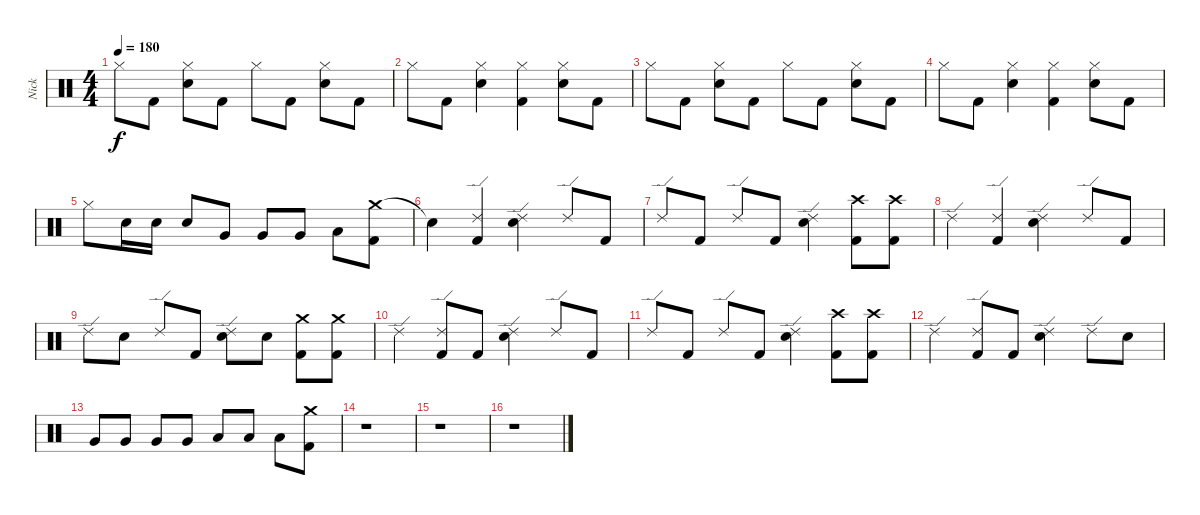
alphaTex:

\track ("Nick" "Nick") {instrument percussion}
\staff {score}
\articulation defaults
\ts (4 4)
\tempo 180
\clef neutral
\ks c "Hi-Hat (closed)".8{dy f} "Kick (hit) 2".8
("Hi-Hat (closed)" "Electric Snare (hit)").8 "Kick (hit) 2".8 "Hi-Hat (closed)".8 "Kick (hit) 2".8 ("Hi-Hat (closed)" "Electric Snare (hit)").8 "Kick (hit) 2".8 |
"Hi-Hat (closed)".8 "Kick (hit) 2".8 ("Hi-Hat (closed)" "Electric Snare (hit)").4 ("Hi-Hat (closed)" "Kick (hit) 2").4 ("Hi-Hat (closed)" "Electric Snare (hit)").8 "Kick (hit) 2".8 |
"Hi-Hat (closed)".8 "Kick (hit) 2".8 ("Hi-Hat (closed)" "Electric Snare (hit)").8 "Kick (hit) 2".8 "Hi-Hat (closed)".8 "Kick (hit) 2".8 ("Hi-Hat (closed)" "Electric Snare (hit)").8 "Kick (hit) 2".8 |
"Hi-Hat (closed)".8 "Kick (hit) 2".8 ("Hi-Hat (closed)" "Electric Snare (hit)").4 ("Hi-Hat (closed)" "Kick (hit) 2").4 ("Hi-Hat (closed)" "Electric Snare (hit)").8 "Kick (hit) 2".8 |
"Hi-Hat (closed)".8 "Electric Snare (hit)".16 "Electric Snare (hit)".16 "Electric Snare (hit)".8 "Very Low Tom (hit)".8 "Very Low Tom (hit)".8 "Very Low Tom (hit)".8 "Low Floor Tom (hit)".8 ("Crash medium (hit)" "Kick (hit) 2").8 |
"Snare (hit)"{t}.4 ("Ride (edge) 2" "Kick (hit) 2").4 ("Ride (edge) 2" "Electric Snare (hit)").4 "Ride (edge) 2".8 "Kick (hit) 2".8 |
"Ride (edge) 2".8 "Kick (hit) 2".8 "Ride (edge) 2".8 "Kick (hit) 2".8 ("Ride (edge) 2" "Electric Snare (hit)").4 ("Crash high (hit)" "Kick (hit) 2").8 ("Crash high (hit)" "Kick (hit) 2").8 |
"Ride (edge) 2".4 ("Ride (edge) 2" "Kick (hit) 2").4 ("Ride (edge) 2" "Electric Snare (hit)").4 "Ride (edge) 2".8 "Kick (hit) 2".8 |
"Ride (edge) 2".8 "Electric Snare (hit)".8 "Ride (edge) 2".8 "Kick (hit) 2".8 ("Ride (edge) 2" "Electric Snare (hit)").8 "Electric Snare (hit)".8 ("Crash medium (hit)" "Kick (hit) 2").8 ("Crash medium (hit)" "Kick (hit) 2").8 |
"Ride (edge) 2".4 ("Ride (edge) 2" "Kick (hit) 2").8 "Kick (hit) 2".8 ("Ride (edge) 2" "Electric Snare (hit)").4 "Ride (edge) 2".8 "Kick (hit) 2".8 |
"Ride (edge) 2".8 "Kick (hit) 2".8 "Ride (edge) 2".8 "Kick (hit) 2".8 ("Ride (edge) 2" "Electric Snare (hit)").4 ("Crash high (hit)" "Kick (hit) 2").8 ("Crash high (hit)" "Kick (hit) 2").8 |
"Ride (edge) 2".4 ("Ride (edge) 2" "Kick (hit) 2").8 "Kick (hit) 2".8 ("Ride (edge) 2" "Electric Snare (hit)").4 "Ride (edge) 2".8 "Electric Snare (hit)".8 |
"Very Low Tom (hit)".8 "Very Low Tom (hit)".8 "Very Low Tom (hit)".8 "Very Low Tom (hit)".8 "Low Floor Tom (hit)".8 "Low Floor Tom (hit)".8 "Low Floor Tom (hit)".8 ("Crash medium (hit)" "Kick (hit) 2").8 |
r.1 |
r.1 |
r.1
